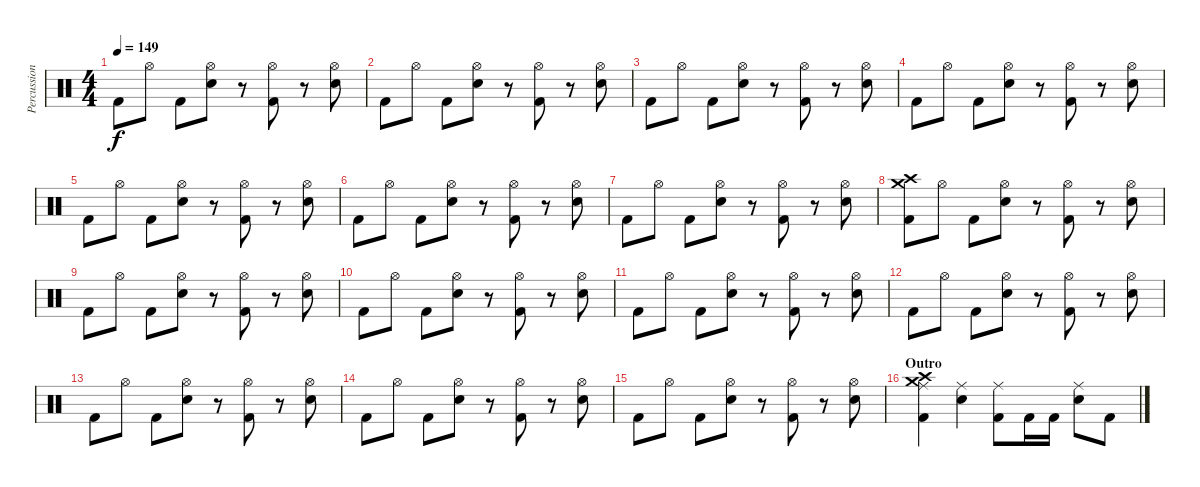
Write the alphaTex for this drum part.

\track ("Percussion" "Percussion") {instrument percussion}
\staff {score}
\articulation defaults
\ts (4 4)
\tempo 149
\clef neutral
\ks c "Kick (hit) 2".8{dy f} "Hi-Hat (open)".8 "Kick (hit) 2".8
("Hi-Hat (open)" "Snare (hit) 2").8 r.8 ("Hi-Hat (open)" "Kick (hit) 2").8 r.8 ("Hi-Hat (open)" "Snare (hit) 2").8 |
"Kick (hit) 2".8 "Hi-Hat (open)".8 "Kick (hit) 2".8 ("Hi-Hat (open)" "Snare (hit) 2").8 r.8 ("Hi-Hat (open)" "Kick (hit) 2").8 r.8 ("Hi-Hat (open)" "Snare (hit) 2").8 |
"Kick (hit) 2".8 "Hi-Hat (open)".8 "Kick (hit) 2".8 ("Hi-Hat (open)" "Snare (hit) 2").8 r.8 ("Hi-Hat (open)" "Kick (hit) 2").8 r.8 ("Hi-Hat (open)" "Snare (hit) 2").8 |
"Kick (hit) 2".8 "Hi-Hat (open)".8 "Kick (hit) 2".8 ("Hi-Hat (open)" "Snare (hit) 2").8 r.8 ("Hi-Hat (open)" "Kick (hit) 2").8 r.8 ("Hi-Hat (open)" "Snare (hit) 2").8 |
"Kick (hit) 2".8 "Hi-Hat (open)".8 "Kick (hit) 2".8 ("Hi-Hat (open)" "Snare (hit) 2").8 r.8 ("Hi-Hat (open)" "Kick (hit) 2").8 r.8 ("Hi-Hat (open)" "Snare (hit) 2").8 |
"Kick (hit) 2".8 "Hi-Hat (open)".8 "Kick (hit) 2".8 ("Hi-Hat (open)" "Snare (hit) 2").8 r.8 ("Hi-Hat (open)" "Kick (hit) 2").8 r.8 ("Hi-Hat (open)" "Snare (hit) 2").8 |
"Kick (hit) 2".8 "Hi-Hat (open)".8 "Kick (hit) 2".8 ("Hi-Hat (open)" "Snare (hit) 2").8 r.8 ("Hi-Hat (open)" "Kick (hit) 2").8 r.8 ("Hi-Hat (open)" "Snare (hit) 2").8 |
("Crash medium (hit)" "Crash high (hit)" "Kick (hit) 2").8 "Hi-Hat (open)".8 "Kick (hit) 2".8 ("Hi-Hat (open)" "Snare (hit) 2").8 r.8 ("Hi-Hat (open)" "Kick (hit) 2").8 r.8 ("Hi-Hat (open)" "Snare (hit) 2").8 |
"Kick (hit) 2".8 "Hi-Hat (open)".8 "Kick (hit) 2".8 ("Hi-Hat (open)" "Snare (hit) 2").8 r.8 ("Hi-Hat (open)" "Kick (hit) 2").8 r.8 ("Hi-Hat (open)" "Snare (hit) 2").8 |
"Kick (hit) 2".8 "Hi-Hat (open)".8 "Kick (hit) 2".8 ("Hi-Hat (open)" "Snare (hit) 2").8 r.8 ("Hi-Hat (open)" "Kick (hit) 2").8 r.8 ("Hi-Hat (open)" "Snare (hit) 2").8 |
"Kick (hit) 2".8 "Hi-Hat (open)".8 "Kick (hit) 2".8 ("Hi-Hat (open)" "Snare (hit) 2").8 r.8 ("Hi-Hat (open)" "Kick (hit) 2").8 r.8 ("Hi-Hat (open)" "Snare (hit) 2").8 |
"Kick (hit) 2".8 "Hi-Hat (open)".8 "Kick (hit) 2".8 ("Hi-Hat (open)" "Snare (hit) 2").8 r.8 ("Hi-Hat (open)" "Kick (hit) 2").8 r.8 ("Hi-Hat (open)" "Snare (hit) 2").8 |
"Kick (hit) 2".8 "Hi-Hat (open)".8 "Kick (hit) 2".8 ("Hi-Hat (open)" "Snare (hit) 2").8 r.8 ("Hi-Hat (open)" "Kick (hit) 2").8 r.8 ("Hi-Hat (open)" "Snare (hit) 2").8 |
"Kick (hit) 2".8 "Hi-Hat (open)".8 "Kick (hit) 2".8 ("Hi-Hat (open)" "Snare (hit) 2").8 r.8 ("Hi-Hat (open)" "Kick (hit) 2").8 r.8 ("Hi-Hat (open)" "Snare (hit) 2").8 |
"Kick (hit) 2".8 "Hi-Hat (open)".8 "Kick (hit) 2".8 ("Hi-Hat (open)" "Snare (hit) 2").8 r.8 ("Hi-Hat (open)" "Kick (hit) 2").8 r.8 ("Hi-Hat (open)" "Snare (hit) 2").8 |
\section ("" "Outro")
("Ride (middle)" "Crash medium (hit)" "Crash high (hit)" "Kick (hit) 2").4 ("Ride (middle)" "Snare (hit) 2").4 ("Ride (middle)" "Kick (hit) 2").8 "Kick (hit) 2".16 "Kick (hit) 2".16 ("Ride (middle)" "Snare (hit) 2").8 "Kick (hit) 2".8
